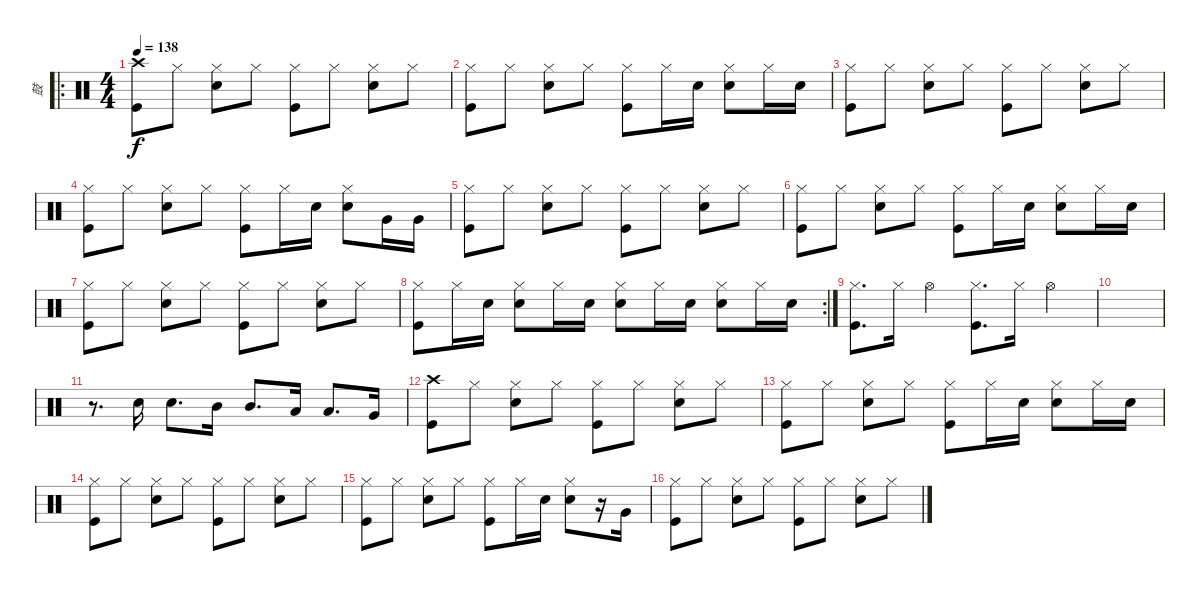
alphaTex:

\track ("鼓" "鼓") {instrument percussion}
\staff {score}
\articulation defaults
\ro
\ts (4 4)
\tempo 138
\clef neutral
\ks c
("Crash high (hit)" "Kick (hit)").8{dy f} "Hi-Hat (closed)".8 ("Hi-Hat (closed)" "Snare (hit) 2").8 "Hi-Hat (closed)".8 ("Hi-Hat (closed)" "Kick (hit)").8 "Hi-Hat (closed)".8 ("Hi-Hat (closed)" "Snare (hit) 2").8 "Hi-Hat (closed)".8 |
("Hi-Hat (closed)" "Kick (hit)").8 "Hi-Hat (closed)".8 ("Hi-Hat (closed)" "Snare (hit) 2").8 "Hi-Hat (closed)".8 ("Hi-Hat (closed)" "Kick (hit)").8 "Hi-Hat (closed)".16 "Snare (hit) 2".16 ("Hi-Hat (closed)" "Snare (hit) 2").8 "Hi-Hat (closed)".16 "Snare (hit) 2".16 |
("Hi-Hat (closed)" "Kick (hit)").8 "Hi-Hat (closed)".8 ("Hi-Hat (closed)" "Snare (hit) 2").8 "Hi-Hat (closed)".8 ("Hi-Hat (closed)" "Kick (hit)").8 "Hi-Hat (closed)".8 ("Hi-Hat (closed)" "Snare (hit) 2").8 "Hi-Hat (closed)".8 |
("Hi-Hat (closed)" "Kick (hit)").8 "Hi-Hat (closed)".8 ("Hi-Hat (closed)" "Snare (hit) 2").8 "Hi-Hat (closed)".8 ("Hi-Hat (closed)" "Kick (hit)").8 "Hi-Hat (closed)".16 "Snare (hit) 2".16 ("Hi-Hat (closed)" "Snare (hit) 2").8 "Very Low Tom (hit)".16 "Very Low Tom (hit)".16 |
("Hi-Hat (closed)" "Kick (hit)").8 "Hi-Hat (closed)".8 ("Hi-Hat (closed)" "Snare (hit) 2").8 "Hi-Hat (closed)".8 ("Hi-Hat (closed)" "Kick (hit)").8 "Hi-Hat (closed)".8 ("Hi-Hat (closed)" "Snare (hit) 2").8 "Hi-Hat (closed)".8 |
("Hi-Hat (closed)" "Kick (hit)").8 "Hi-Hat (closed)".8 ("Hi-Hat (closed)" "Snare (hit) 2").8 "Hi-Hat (closed)".8 ("Hi-Hat (closed)" "Kick (hit)").8 "Hi-Hat (closed)".16 "Snare (hit) 2".16 ("Hi-Hat (closed)" "Snare (hit) 2").8 "Hi-Hat (closed)".16 "Snare (hit) 2".16 |
("Hi-Hat (closed)" "Kick (hit)").8 "Hi-Hat (closed)".8 ("Hi-Hat (closed)" "Snare (hit) 2").8 "Hi-Hat (closed)".8 ("Hi-Hat (closed)" "Kick (hit)").8 "Hi-Hat (closed)".8 ("Hi-Hat (closed)" "Snare (hit) 2").8 "Hi-Hat (closed)".8 |
\rc 2
("Hi-Hat (closed)" "Kick (hit)").8 "Hi-Hat (closed)".16 "Snare (hit) 2".16 ("Hi-Hat (closed)" "Snare (hit) 2").8 "Hi-Hat (closed)".16 "Snare (hit) 2".16 ("Hi-Hat (closed)" "Snare (hit) 2").8 "Hi-Hat (closed)".16 "Snare (hit) 2".16 ("Hi-Hat (closed)" "Snare (hit) 2").8 "Hi-Hat (closed)".16 "Snare (hit) 2".16 |
("Hi-Hat (closed)" "Kick (hit)").8{d} "Hi-Hat (closed)".16 "Hi-Hat (open)".4 ("Hi-Hat (closed)" "Kick (hit)").8{d} "Hi-Hat (closed)".16 "Hi-Hat (open)".4 |
|
r.8{d} "Snare (hit) 2".16 "Snare (hit) 2".8{d} "Mid Tom (hit)".16 "Mid Tom (hit)".8{d} "Low Tom (hit)".16 "Low Tom (hit)".8{d} "Very Low Tom (hit)".16 |
("Crash high (hit)" "Kick (hit)").8 "Hi-Hat (closed)".8 ("Hi-Hat (closed)" "Snare (hit) 2").8 "Hi-Hat (closed)".8 ("Hi-Hat (closed)" "Kick (hit)").8 "Hi-Hat (closed)".8 ("Hi-Hat (closed)" "Snare (hit) 2").8 "Hi-Hat (closed)".8 |
("Hi-Hat (closed)" "Kick (hit)").8 "Hi-Hat (closed)".8 ("Hi-Hat (closed)" "Snare (hit) 2").8 "Hi-Hat (closed)".8 ("Hi-Hat (closed)" "Kick (hit)").8 "Hi-Hat (closed)".16 "Snare (hit) 2".16 ("Hi-Hat (closed)" "Snare (hit) 2").8 "Hi-Hat (closed)".16 "Snare (hit) 2".16 |
("Hi-Hat (closed)" "Kick (hit)").8 "Hi-Hat (closed)".8 ("Hi-Hat (closed)" "Snare (hit) 2").8 "Hi-Hat (closed)".8 ("Hi-Hat (closed)" "Kick (hit)").8 "Hi-Hat (closed)".8 ("Hi-Hat (closed)" "Snare (hit) 2").8 "Hi-Hat (closed)".8 |
("Hi-Hat (closed)" "Kick (hit)").8 "Hi-Hat (closed)".8 ("Hi-Hat (closed)" "Snare (hit) 2").8 "Hi-Hat (closed)".8 ("Hi-Hat (closed)" "Kick (hit)").8 "Hi-Hat (closed)".16 "Snare (hit) 2".16 ("Hi-Hat (closed)" "Snare (hit) 2").8 r.16 "Very Low Tom (hit)".16 |
("Hi-Hat (closed)" "Kick (hit)").8 "Hi-Hat (closed)".8 ("Hi-Hat (closed)" "Snare (hit) 2").8 "Hi-Hat (closed)".8 ("Hi-Hat (closed)" "Kick (hit)").8 "Hi-Hat (closed)".8 ("Hi-Hat (closed)" "Snare (hit) 2").8 "Hi-Hat (closed)".8
